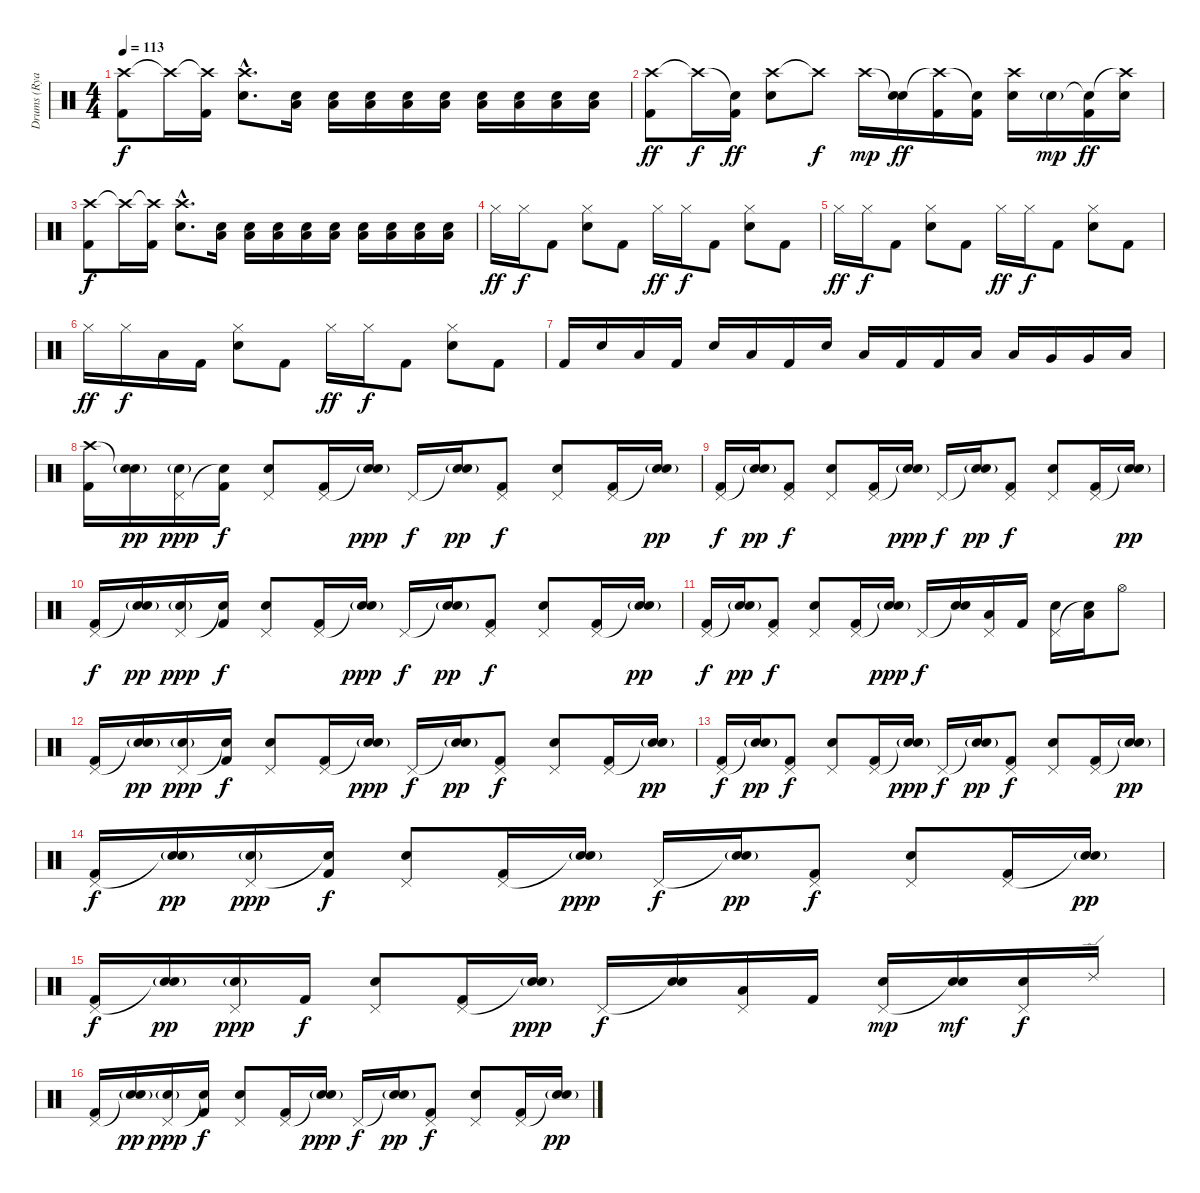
\track ("Drums (Ryan \"Nik\" Vikedal)" "Drums (Rya") {instrument percussion}
\staff {score}
\articulation defaults
\ts (4 4)
\tempo 113
\clef neutral
\ks c
("Crash high (hit)" "Kick (hit) 2").8{dy f} "Crash high (hit)"{t}.16 ("Crash high (hit)"{t} "Kick (hit) 2").16 ("Crash high (hit)"{hac} "Electric Snare (hit)"{hac}).8{d} ("Low Tom (hit)" "Electric Snare (hit)").16 ("Low Tom (hit)" "Electric Snare (hit)").16 ("Low Tom (hit)" "Electric Snare (hit)").16 ("Low Tom (hit)" "Electric Snare (hit)").16 ("Low Tom (hit)" "Electric Snare (hit)").16 ("Low Tom (hit)" "Electric Snare (hit)").16 ("Low Tom (hit)" "Electric Snare (hit)").16 ("Low Tom (hit)" "Electric Snare (hit)").16 ("Low Tom (hit)" "Electric Snare (hit)").16 |
("Crash high (hit)" "Kick (hit) 2").8{dy ff} "Crash high (hit)"{t}.16{dy f} ("Snare (hit)"{t} "Kick (hit) 2").16{dy ff} ("Crash high (hit)" "Electric Snare (hit)").8 "Crash high (hit)"{t}.8{dy f} "Crash high (hit)".16{dy mp} ("Snare (hit)"{t} "Electric Snare (hit)").16{dy ff} ("Crash high (hit)"{t} "Kick (hit) 2").16 ("Snare (hit)"{t} "Kick (hit) 2").16 ("Crash high (hit)" "Electric Snare (hit)").16 "Electric Snare (hit)"{g}.16{dy mp} ("Snare (hit)"{t} "Kick (hit) 2").16{dy ff} ("Crash high (hit)"{t} "Electric Snare (hit)").16 |
("Crash high (hit)" "Kick (hit) 2").8{dy f} "Crash high (hit)"{t}.16 ("Crash high (hit)"{t} "Kick (hit) 2").16 ("Crash high (hit)"{hac} "Electric Snare (hit)"{hac}).8{d} ("Low Tom (hit)" "Electric Snare (hit)").16 ("Low Tom (hit)" "Electric Snare (hit)").16 ("Low Tom (hit)" "Electric Snare (hit)").16 ("Low Tom (hit)" "Electric Snare (hit)").16 ("Low Tom (hit)" "Electric Snare (hit)").16 ("Low Tom (hit)" "Electric Snare (hit)").16 ("Low Tom (hit)" "Electric Snare (hit)").16 ("Low Tom (hit)" "Electric Snare (hit)").16 ("Low Tom (hit)" "Electric Snare (hit)").16 |
"Hi-Hat (closed)".16{dy ff} "Hi-Hat (closed)".16{dy f} "Kick (hit) 2".8 ("Hi-Hat (closed)" "Electric Snare (hit)").8 "Kick (hit) 2".8 "Hi-Hat (closed)".16{dy ff} "Hi-Hat (closed)".16{dy f} "Kick (hit) 2".8 ("Hi-Hat (closed)" "Electric Snare (hit)").8 "Kick (hit) 2".8 |
"Hi-Hat (closed)".16{dy ff} "Hi-Hat (closed)".16{dy f} "Kick (hit) 2".8 ("Hi-Hat (closed)" "Electric Snare (hit)").8 "Kick (hit) 2".8 "Hi-Hat (closed)".16{dy ff} "Hi-Hat (closed)".16{dy f} "Kick (hit) 2".8 ("Hi-Hat (closed)" "Electric Snare (hit)").8 "Kick (hit) 2".8 |
"Hi-Hat (closed)".16{dy ff} "Hi-Hat (closed)".16{dy f} "Low Tom (hit)".16 "Kick (hit) 2".16 ("Hi-Hat (closed)" "Electric Snare (hit)").8 "Kick (hit) 2".8 "Hi-Hat (closed)".16{dy ff} "Hi-Hat (closed)".16{dy f} "Kick (hit) 2".8 ("Hi-Hat (closed)" "Electric Snare (hit)").8 "Kick (hit) 2".8 |
"Kick (hit) 2".16 "Electric Snare (hit)".16 "Low Tom (hit)".16 "Kick (hit) 2".16 "Electric Snare (hit)".16 "Low Tom (hit)".16 "Kick (hit) 2".16 "Electric Snare (hit)".16 "Low Tom (hit)".16 "Kick (hit) 2".16 "Kick (hit) 2".16 "Low Tom (hit)".16 "Low Tom (hit)".16 "Very Low Tom (hit)".16 "Very Low Tom (hit)".16 "Low Floor Tom (hit)".16 |
("Crash high (hit)" "Kick (hit) 2").16 ("Snare (hit)"{t} "Electric Snare (hit)"{g}).16{dy pp} ("Pedal Hi-Hat (hit)" "Electric Snare (hit)"{g}).16{dy ppp} ("Snare (hit)"{t} "Kick (hit) 2").16{dy f} ("Pedal Hi-Hat (hit)" "Electric Snare (hit)").8 ("Pedal Hi-Hat (hit)" "Kick (hit) 2").16 ("Snare (hit)"{t} "Electric Snare (hit)"{g}).16{dy ppp} "Pedal Hi-Hat (hit)".16{dy f} ("Snare (hit)"{t} "Electric Snare (hit)"{g}).16{dy pp} ("Pedal Hi-Hat (hit)" "Kick (hit) 2").8{dy f} ("Pedal Hi-Hat (hit)" "Electric Snare (hit)").8 ("Pedal Hi-Hat (hit)" "Kick (hit) 2").16 ("Snare (hit)"{t} "Electric Snare (hit)"{g}).16{dy pp} |
("Pedal Hi-Hat (hit)" "Kick (hit) 2").16{dy f} ("Snare (hit)"{t} "Electric Snare (hit)"{g}).16{dy pp} ("Pedal Hi-Hat (hit)" "Kick (hit) 2").8{dy f} ("Pedal Hi-Hat (hit)" "Electric Snare (hit)").8 ("Pedal Hi-Hat (hit)" "Kick (hit) 2").16 ("Snare (hit)"{t} "Electric Snare (hit)"{g}).16{dy ppp} "Pedal Hi-Hat (hit)".16{dy f} ("Snare (hit)"{t} "Electric Snare (hit)"{g}).16{dy pp} ("Pedal Hi-Hat (hit)" "Kick (hit) 2").8{dy f} ("Pedal Hi-Hat (hit)" "Electric Snare (hit)").8 ("Pedal Hi-Hat (hit)" "Kick (hit) 2").16 ("Snare (hit)"{t} "Electric Snare (hit)"{g}).16{dy pp} |
("Pedal Hi-Hat (hit)" "Kick (hit) 2").16{dy f} ("Snare (hit)"{t} "Electric Snare (hit)"{g}).16{dy pp} ("Pedal Hi-Hat (hit)" "Electric Snare (hit)"{g}).16{dy ppp} ("Snare (hit)"{t} "Kick (hit) 2").16{dy f} ("Pedal Hi-Hat (hit)" "Electric Snare (hit)").8 ("Pedal Hi-Hat (hit)" "Kick (hit) 2").16 ("Snare (hit)"{t} "Electric Snare (hit)"{g}).16{dy ppp} "Pedal Hi-Hat (hit)".16{dy f} ("Snare (hit)"{t} "Electric Snare (hit)"{g}).16{dy pp} ("Pedal Hi-Hat (hit)" "Kick (hit) 2").8{dy f} ("Pedal Hi-Hat (hit)" "Electric Snare (hit)").8 ("Pedal Hi-Hat (hit)" "Kick (hit) 2").16 ("Snare (hit)"{t} "Electric Snare (hit)"{g}).16{dy pp} |
("Pedal Hi-Hat (hit)" "Kick (hit) 2").16{dy f} ("Snare (hit)"{t} "Electric Snare (hit)"{g}).16{dy pp} ("Pedal Hi-Hat (hit)" "Kick (hit) 2").8{dy f} ("Pedal Hi-Hat (hit)" "Electric Snare (hit)").8 ("Pedal Hi-Hat (hit)" "Kick (hit) 2").16 ("Snare (hit)"{t} "Electric Snare (hit)"{g}).16{dy ppp} "Pedal Hi-Hat (hit)".16{dy f} ("Snare (hit)"{t} "Electric Snare (hit)").16 ("Pedal Hi-Hat (hit)" "Low Tom (hit)").16 "Kick (hit) 2".16 ("Pedal Hi-Hat (hit)" "Electric Snare (hit)").16 ("Snare (hit)"{t} "Low Tom (hit)").16 "Hi-Hat (open)".8 |
("Pedal Hi-Hat (hit)" "Kick (hit) 2").16 ("Snare (hit)"{t} "Electric Snare (hit)"{g}).16{dy pp} ("Pedal Hi-Hat (hit)" "Electric Snare (hit)"{g}).16{dy ppp} ("Snare (hit)"{t} "Kick (hit) 2").16{dy f} ("Pedal Hi-Hat (hit)" "Electric Snare (hit)").8 ("Pedal Hi-Hat (hit)" "Kick (hit) 2").16 ("Snare (hit)"{t} "Electric Snare (hit)"{g}).16{dy ppp} "Pedal Hi-Hat (hit)".16{dy f} ("Snare (hit)"{t} "Electric Snare (hit)"{g}).16{dy pp} ("Pedal Hi-Hat (hit)" "Kick (hit) 2").8{dy f} ("Pedal Hi-Hat (hit)" "Electric Snare (hit)").8 ("Pedal Hi-Hat (hit)" "Kick (hit) 2").16 ("Snare (hit)"{t} "Electric Snare (hit)"{g}).16{dy pp} |
("Pedal Hi-Hat (hit)" "Kick (hit) 2").16{dy f} ("Snare (hit)"{t} "Electric Snare (hit)"{g}).16{dy pp} ("Pedal Hi-Hat (hit)" "Kick (hit) 2").8{dy f} ("Pedal Hi-Hat (hit)" "Electric Snare (hit)").8 ("Pedal Hi-Hat (hit)" "Kick (hit) 2").16 ("Snare (hit)"{t} "Electric Snare (hit)"{g}).16{dy ppp} "Pedal Hi-Hat (hit)".16{dy f} ("Snare (hit)"{t} "Electric Snare (hit)"{g}).16{dy pp} ("Pedal Hi-Hat (hit)" "Kick (hit) 2").8{dy f} ("Pedal Hi-Hat (hit)" "Electric Snare (hit)").8 ("Pedal Hi-Hat (hit)" "Kick (hit) 2").16 ("Snare (hit)"{t} "Electric Snare (hit)"{g}).16{dy pp} |
("Pedal Hi-Hat (hit)" "Kick (hit) 2").16{dy f} ("Snare (hit)"{t} "Electric Snare (hit)"{g}).16{dy pp} ("Pedal Hi-Hat (hit)" "Electric Snare (hit)"{g}).16{dy ppp} ("Snare (hit)"{t} "Kick (hit) 2").16{dy f} ("Pedal Hi-Hat (hit)" "Electric Snare (hit)").8 ("Pedal Hi-Hat (hit)" "Kick (hit) 2").16 ("Snare (hit)"{t} "Electric Snare (hit)"{g}).16{dy ppp} "Pedal Hi-Hat (hit)".16{dy f} ("Snare (hit)"{t} "Electric Snare (hit)"{g}).16{dy pp} ("Pedal Hi-Hat (hit)" "Kick (hit) 2").8{dy f} ("Pedal Hi-Hat (hit)" "Electric Snare (hit)").8 ("Pedal Hi-Hat (hit)" "Kick (hit) 2").16 ("Snare (hit)"{t} "Electric Snare (hit)"{g}).16{dy pp} |
("Pedal Hi-Hat (hit)" "Kick (hit) 2").16{dy f} ("Snare (hit)"{t} "Electric Snare (hit)"{g}).16{dy pp} ("Pedal Hi-Hat (hit)" "Electric Snare (hit)"{g}).16{dy ppp} "Kick (hit) 2".16{dy f} ("Pedal Hi-Hat (hit)" "Electric Snare (hit)").8 ("Pedal Hi-Hat (hit)" "Kick (hit) 2").16 ("Snare (hit)"{t} "Electric Snare (hit)"{g}).16{dy ppp} "Pedal Hi-Hat (hit)".16{dy f} ("Snare (hit)"{t} "Electric Snare (hit)").16 ("Pedal Hi-Hat (hit)" "Low Tom (hit)").16 "Kick (hit) 2".16 ("Pedal Hi-Hat (hit)" "Electric Snare (hit)").16{dy mp} ("Snare (hit)"{t} "Electric Snare (hit)").16{dy mf} ("Pedal Hi-Hat (hit)" "Electric Snare (hit)").16{dy f} "Ride (edge) 2".16 |
("Pedal Hi-Hat (hit)" "Kick (hit) 2").16 ("Snare (hit)"{t} "Electric Snare (hit)"{g}).16{dy pp} ("Pedal Hi-Hat (hit)" "Electric Snare (hit)"{g}).16{dy ppp} ("Snare (hit)"{t} "Kick (hit) 2").16{dy f} ("Pedal Hi-Hat (hit)" "Electric Snare (hit)").8 ("Pedal Hi-Hat (hit)" "Kick (hit) 2").16 ("Snare (hit)"{t} "Electric Snare (hit)"{g}).16{dy ppp} "Pedal Hi-Hat (hit)".16{dy f} ("Snare (hit)"{t} "Electric Snare (hit)"{g}).16{dy pp} ("Pedal Hi-Hat (hit)" "Kick (hit) 2").8{dy f} ("Pedal Hi-Hat (hit)" "Electric Snare (hit)").8 ("Pedal Hi-Hat (hit)" "Kick (hit) 2").16 ("Snare (hit)"{t} "Electric Snare (hit)"{g}).16{dy pp}
